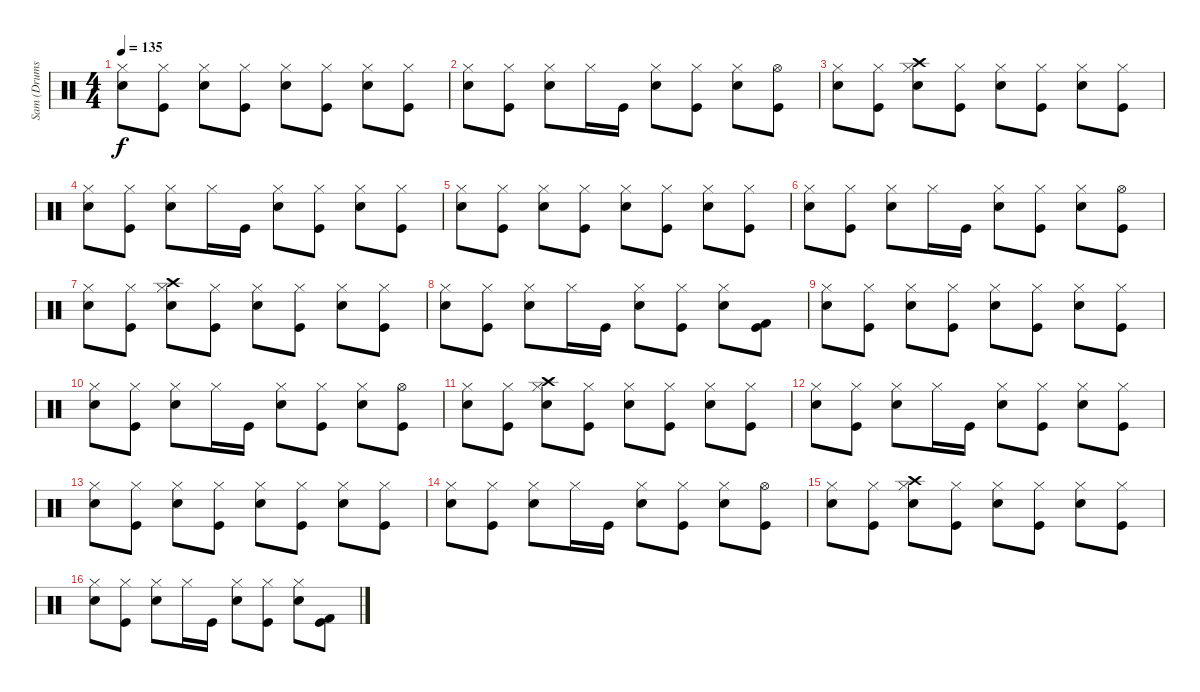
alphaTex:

\track ("Sam (Drums)" "Sam (Drums") {instrument percussion}
\staff {score}
\articulation defaults
\ts (4 4)
\tempo 135
\clef neutral
\ks c
("Hi-Hat (closed)" "Snare (hit) 2").8{dy f} ("Hi-Hat (closed)" "Kick (hit)").8 ("Hi-Hat (closed)" "Snare (hit) 2").8 ("Hi-Hat (closed)" "Kick (hit)").8 ("Hi-Hat (closed)" "Snare (hit) 2").8 ("Hi-Hat (closed)" "Kick (hit)").8 ("Hi-Hat (closed)" "Snare (hit) 2").8 ("Hi-Hat (closed)" "Kick (hit)").8 |
("Hi-Hat (closed)" "Snare (hit) 2").8 ("Hi-Hat (closed)" "Kick (hit)").8 ("Hi-Hat (closed)" "Snare (hit) 2").8 "Hi-Hat (closed)".16 "Kick (hit)".16 ("Hi-Hat (closed)" "Snare (hit) 2").8 ("Hi-Hat (closed)" "Kick (hit)").8 ("Hi-Hat (closed)" "Snare (hit) 2").8 ("Hi-Hat (open)" "Kick (hit)").8 |
("Hi-Hat (closed)" "Snare (hit) 2").8 ("Hi-Hat (closed)" "Kick (hit)").8 ("Crash high (hit)" "Hi-Hat (closed)" "Snare (hit) 2").8 ("Hi-Hat (closed)" "Kick (hit)").8 ("Hi-Hat (closed)" "Snare (hit) 2").8 ("Hi-Hat (closed)" "Kick (hit)").8 ("Hi-Hat (closed)" "Snare (hit) 2").8 ("Hi-Hat (closed)" "Kick (hit)").8 |
("Hi-Hat (closed)" "Snare (hit) 2").8 ("Hi-Hat (closed)" "Kick (hit)").8 ("Hi-Hat (closed)" "Snare (hit) 2").8 "Hi-Hat (closed)".16 "Kick (hit)".16 ("Hi-Hat (closed)" "Snare (hit) 2").8 ("Hi-Hat (closed)" "Kick (hit)").8 ("Hi-Hat (closed)" "Snare (hit) 2").8 ("Hi-Hat (closed)" "Kick (hit)").8 |
("Hi-Hat (closed)" "Snare (hit) 2").8 ("Hi-Hat (closed)" "Kick (hit)").8 ("Hi-Hat (closed)" "Snare (hit) 2").8 ("Hi-Hat (closed)" "Kick (hit)").8 ("Hi-Hat (closed)" "Snare (hit) 2").8 ("Hi-Hat (closed)" "Kick (hit)").8 ("Hi-Hat (closed)" "Snare (hit) 2").8 ("Hi-Hat (closed)" "Kick (hit)").8 |
("Hi-Hat (closed)" "Snare (hit) 2").8 ("Hi-Hat (closed)" "Kick (hit)").8 ("Hi-Hat (closed)" "Snare (hit) 2").8 "Hi-Hat (closed)".16 "Kick (hit)".16 ("Hi-Hat (closed)" "Snare (hit) 2").8 ("Hi-Hat (closed)" "Kick (hit)").8 ("Hi-Hat (closed)" "Snare (hit) 2").8 ("Hi-Hat (open)" "Kick (hit)").8 |
("Hi-Hat (closed)" "Snare (hit) 2").8 ("Hi-Hat (closed)" "Kick (hit)").8 ("Crash high (hit)" "Hi-Hat (closed)" "Snare (hit) 2").8 ("Hi-Hat (closed)" "Kick (hit)").8 ("Hi-Hat (closed)" "Snare (hit) 2").8 ("Hi-Hat (closed)" "Kick (hit)").8 ("Hi-Hat (closed)" "Snare (hit) 2").8 ("Hi-Hat (closed)" "Kick (hit)").8 |
("Hi-Hat (closed)" "Snare (hit) 2").8 ("Hi-Hat (closed)" "Kick (hit)").8 ("Hi-Hat (closed)" "Snare (hit) 2").8 "Hi-Hat (closed)".16 "Kick (hit)".16 ("Hi-Hat (closed)" "Snare (hit) 2").8 ("Hi-Hat (closed)" "Kick (hit)").8 ("Hi-Hat (closed)" "Snare (hit) 2").8 ("Kick (hit) 2" "Kick (hit)").8 |
("Hi-Hat (closed)" "Snare (hit) 2").8 ("Hi-Hat (closed)" "Kick (hit)").8 ("Hi-Hat (closed)" "Snare (hit) 2").8 ("Hi-Hat (closed)" "Kick (hit)").8 ("Hi-Hat (closed)" "Snare (hit) 2").8 ("Hi-Hat (closed)" "Kick (hit)").8 ("Hi-Hat (closed)" "Snare (hit) 2").8 ("Hi-Hat (closed)" "Kick (hit)").8 |
("Hi-Hat (closed)" "Snare (hit) 2").8 ("Hi-Hat (closed)" "Kick (hit)").8 ("Hi-Hat (closed)" "Snare (hit) 2").8 "Hi-Hat (closed)".16 "Kick (hit)".16 ("Hi-Hat (closed)" "Snare (hit) 2").8 ("Hi-Hat (closed)" "Kick (hit)").8 ("Hi-Hat (closed)" "Snare (hit) 2").8 ("Hi-Hat (open)" "Kick (hit)").8 |
("Hi-Hat (closed)" "Snare (hit) 2").8{volume 8} ("Hi-Hat (closed)" "Kick (hit)").8 ("Crash high (hit)" "Hi-Hat (closed)" "Snare (hit) 2").8 ("Hi-Hat (closed)" "Kick (hit)").8 ("Hi-Hat (closed)" "Snare (hit) 2").8 ("Hi-Hat (closed)" "Kick (hit)").8 ("Hi-Hat (closed)" "Snare (hit) 2").8 ("Hi-Hat (closed)" "Kick (hit)").8 |
("Hi-Hat (closed)" "Snare (hit) 2").8 ("Hi-Hat (closed)" "Kick (hit)").8 ("Hi-Hat (closed)" "Snare (hit) 2").8 "Hi-Hat (closed)".16 "Kick (hit)".16 ("Hi-Hat (closed)" "Snare (hit) 2").8 ("Hi-Hat (closed)" "Kick (hit)").8 ("Hi-Hat (closed)" "Snare (hit) 2").8 ("Hi-Hat (closed)" "Kick (hit)").8 |
("Hi-Hat (closed)" "Snare (hit) 2").8 ("Hi-Hat (closed)" "Kick (hit)").8 ("Hi-Hat (closed)" "Snare (hit) 2").8 ("Hi-Hat (closed)" "Kick (hit)").8 ("Hi-Hat (closed)" "Snare (hit) 2").8 ("Hi-Hat (closed)" "Kick (hit)").8 ("Hi-Hat (closed)" "Snare (hit) 2").8 ("Hi-Hat (closed)" "Kick (hit)").8 |
("Hi-Hat (closed)" "Snare (hit) 2").8 ("Hi-Hat (closed)" "Kick (hit)").8 ("Hi-Hat (closed)" "Snare (hit) 2").8 "Hi-Hat (closed)".16 "Kick (hit)".16 ("Hi-Hat (closed)" "Snare (hit) 2").8 ("Hi-Hat (closed)" "Kick (hit)").8 ("Hi-Hat (closed)" "Snare (hit) 2").8 ("Hi-Hat (open)" "Kick (hit)").8 |
("Hi-Hat (closed)" "Snare (hit) 2").8{volume 4} ("Hi-Hat (closed)" "Kick (hit)").8 ("Crash high (hit)" "Hi-Hat (closed)" "Snare (hit) 2").8 ("Hi-Hat (closed)" "Kick (hit)").8 ("Hi-Hat (closed)" "Snare (hit) 2").8 ("Hi-Hat (closed)" "Kick (hit)").8 ("Hi-Hat (closed)" "Snare (hit) 2").8 ("Hi-Hat (closed)" "Kick (hit)").8 |
("Hi-Hat (closed)" "Snare (hit) 2").8 ("Hi-Hat (closed)" "Kick (hit)").8 ("Hi-Hat (closed)" "Snare (hit) 2").8 "Hi-Hat (closed)".16 "Kick (hit)".16 ("Hi-Hat (closed)" "Snare (hit) 2").8 ("Hi-Hat (closed)" "Kick (hit)").8 ("Hi-Hat (closed)" "Snare (hit) 2").8 ("Kick (hit) 2" "Kick (hit)").8
